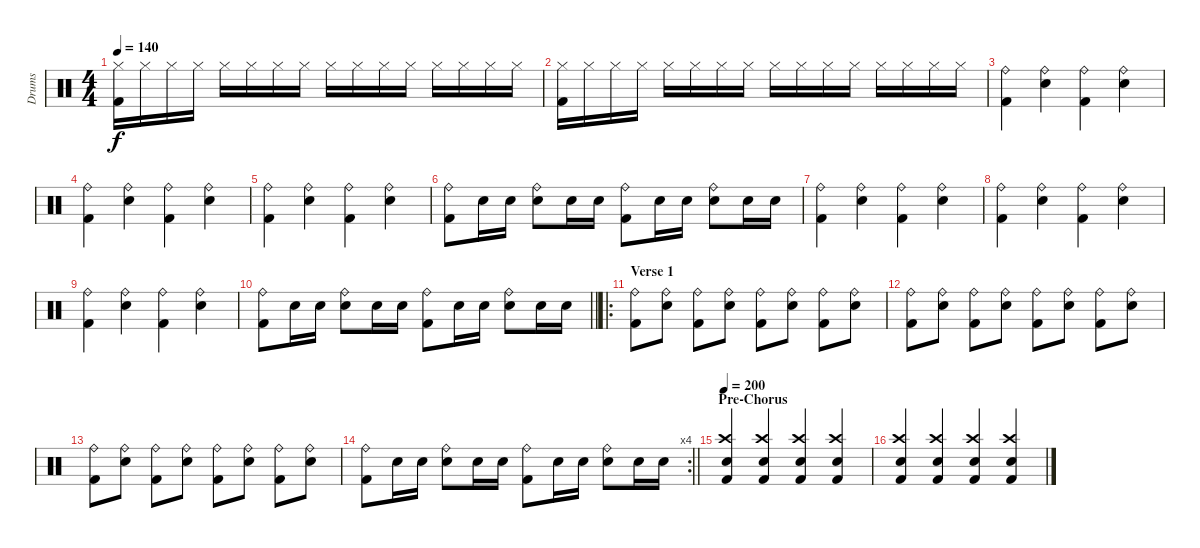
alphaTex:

\track ("Drums" "Drums") {instrument percussion}
\staff {score}
\articulation defaults
\ts (4 4)
\tempo 140
\clef neutral
\ks c
("Hi-Hat (closed)" "Kick (hit) 2").16{dy f} "Hi-Hat (closed)".16 "Hi-Hat (closed)".16 "Hi-Hat (closed)".16 "Hi-Hat (closed)".16 "Hi-Hat (closed)".16 "Hi-Hat (closed)".16 "Hi-Hat (closed)".16 "Hi-Hat (closed)".16 "Hi-Hat (closed)".16 "Hi-Hat (closed)".16 "Hi-Hat (closed)".16 "Hi-Hat (closed)".16 "Hi-Hat (closed)".16 "Hi-Hat (closed)".16 "Hi-Hat (closed)".16 |
("Hi-Hat (closed)" "Kick (hit) 2").16 "Hi-Hat (closed)".16 "Hi-Hat (closed)".16 "Hi-Hat (closed)".16 "Hi-Hat (closed)".16 "Hi-Hat (closed)".16 "Hi-Hat (closed)".16 "Hi-Hat (closed)".16 "Hi-Hat (closed)".16 "Hi-Hat (closed)".16 "Hi-Hat (closed)".16 "Hi-Hat (closed)".16 "Hi-Hat (closed)".16 "Hi-Hat (closed)".16 "Hi-Hat (closed)".16 "Hi-Hat (closed)".16 |
("Ride (bell)" "Kick (hit) 2").4 ("Ride (bell)" "Snare (hit) 2").4 ("Ride (bell)" "Kick (hit) 2").4 ("Ride (bell)" "Snare (hit) 2").4 |
("Ride (bell)" "Kick (hit) 2").4 ("Ride (bell)" "Snare (hit) 2").4 ("Ride (bell)" "Kick (hit) 2").4 ("Ride (bell)" "Snare (hit) 2").4 |
("Ride (bell)" "Kick (hit) 2").4 ("Ride (bell)" "Snare (hit) 2").4 ("Ride (bell)" "Kick (hit) 2").4 ("Ride (bell)" "Snare (hit) 2").4 |
("Ride (bell)" "Kick (hit) 2").8 "Snare (hit) 2".16 "Snare (hit) 2".16 ("Ride (bell)" "Snare (hit) 2").8 "Snare (hit) 2".16 "Snare (hit) 2".16 ("Ride (bell)" "Kick (hit) 2").8 "Snare (hit) 2".16 "Snare (hit) 2".16 ("Ride (bell)" "Snare (hit) 2").8 "Snare (hit) 2".16 "Snare (hit) 2".16 |
("Ride (bell)" "Kick (hit) 2").4 ("Ride (bell)" "Snare (hit) 2").4 ("Ride (bell)" "Kick (hit) 2").4 ("Ride (bell)" "Snare (hit) 2").4 |
("Ride (bell)" "Kick (hit) 2").4 ("Ride (bell)" "Snare (hit) 2").4 ("Ride (bell)" "Kick (hit) 2").4 ("Ride (bell)" "Snare (hit) 2").4 |
("Ride (bell)" "Kick (hit) 2").4 ("Ride (bell)" "Snare (hit) 2").4 ("Ride (bell)" "Kick (hit) 2").4 ("Ride (bell)" "Snare (hit) 2").4 |
\barLineRight lightlight
("Ride (bell)" "Kick (hit) 2").8 "Snare (hit) 2".16 "Snare (hit) 2".16 ("Ride (bell)" "Snare (hit) 2").8 "Snare (hit) 2".16 "Snare (hit) 2".16 ("Ride (bell)" "Kick (hit) 2").8 "Snare (hit) 2".16 "Snare (hit) 2".16 ("Ride (bell)" "Snare (hit) 2").8 "Snare (hit) 2".16 "Snare (hit) 2".16 |
\ro
\section ("" "Verse 1")
("Ride (bell)" "Kick (hit) 2").8 ("Ride (bell)" "Snare (hit) 2").8 ("Ride (bell)" "Kick (hit) 2").8 ("Ride (bell)" "Snare (hit) 2").8 ("Ride (bell)" "Kick (hit) 2").8 ("Ride (bell)" "Snare (hit) 2").8 ("Ride (bell)" "Kick (hit) 2").8 ("Ride (bell)" "Snare (hit) 2").8 |
("Ride (bell)" "Kick (hit) 2").8 ("Ride (bell)" "Snare (hit) 2").8 ("Ride (bell)" "Kick (hit) 2").8 ("Ride (bell)" "Snare (hit) 2").8 ("Ride (bell)" "Kick (hit) 2").8 ("Ride (bell)" "Snare (hit) 2").8 ("Ride (bell)" "Kick (hit) 2").8 ("Ride (bell)" "Snare (hit) 2").8 |
("Ride (bell)" "Kick (hit) 2").8 ("Ride (bell)" "Snare (hit) 2").8 ("Ride (bell)" "Kick (hit) 2").8 ("Ride (bell)" "Snare (hit) 2").8 ("Ride (bell)" "Kick (hit) 2").8 ("Ride (bell)" "Snare (hit) 2").8 ("Ride (bell)" "Kick (hit) 2").8 ("Ride (bell)" "Snare (hit) 2").8 |
\rc 4
\barLineRight lightlight
("Ride (bell)" "Kick (hit) 2").8 "Snare (hit) 2".16 "Snare (hit) 2".16 ("Ride (bell)" "Snare (hit) 2").8 "Snare (hit) 2".16 "Snare (hit) 2".16 ("Ride (bell)" "Kick (hit) 2").8 "Snare (hit) 2".16 "Snare (hit) 2".16 ("Ride (bell)" "Snare (hit) 2").8 "Snare (hit) 2".16 "Snare (hit) 2".16 |
\section ("" "Pre-Chorus")
\tempo 200
("Crash high (hit)" "Electric Snare (hit)" "Kick (hit) 2").4 ("Crash high (hit)" "Electric Snare (hit)" "Kick (hit) 2").4 ("Crash high (hit)" "Electric Snare (hit)" "Kick (hit) 2").4 ("Crash high (hit)" "Electric Snare (hit)" "Kick (hit) 2").4 |
("Crash high (hit)" "Electric Snare (hit)" "Kick (hit) 2").4 ("Crash high (hit)" "Electric Snare (hit)" "Kick (hit) 2").4 ("Crash high (hit)" "Electric Snare (hit)" "Kick (hit) 2").4 ("Crash high (hit)" "Electric Snare (hit)" "Kick (hit) 2").4
